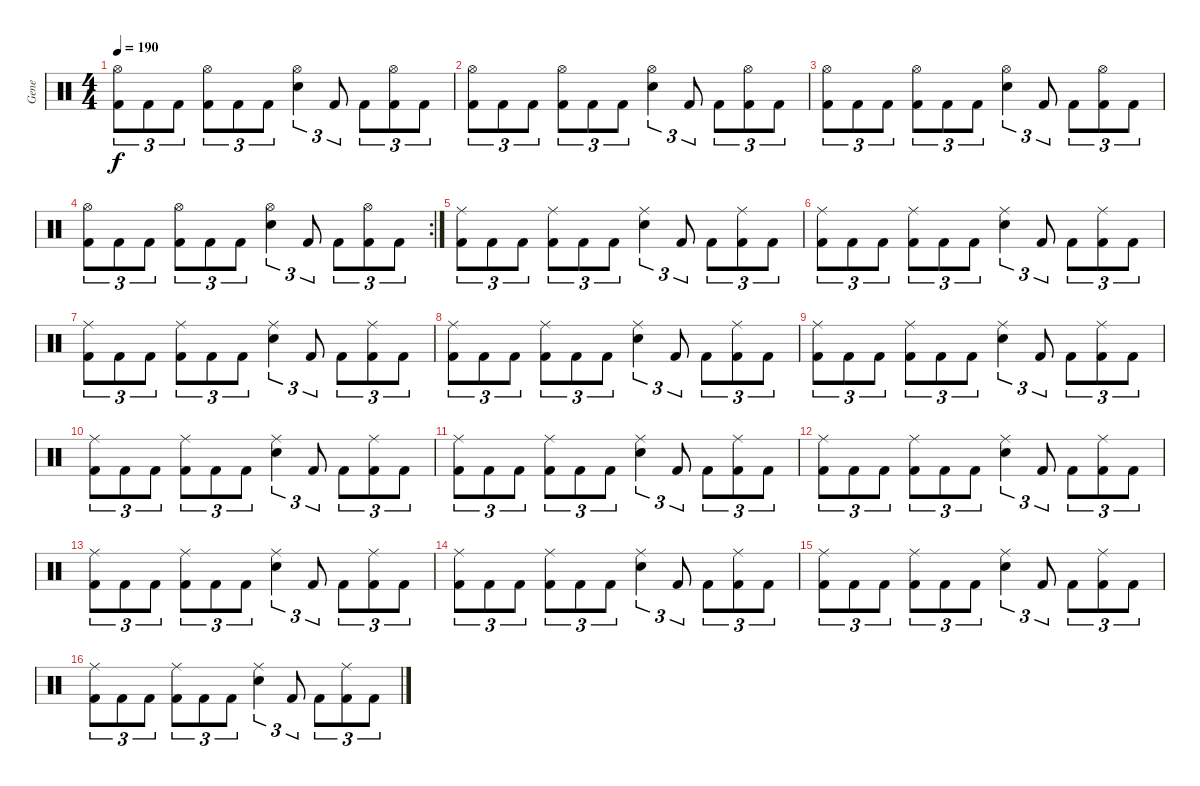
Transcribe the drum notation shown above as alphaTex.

\track ("Gene" "Gene") {instrument percussion}
\staff {score}
\articulation defaults
\ts (4 4)
\tempo 190
\clef neutral
\ks c
("Hi-Hat (open)" "Kick (hit) 2").8{tu (3 2) dy f} "Kick (hit) 2".8{tu (3 2)} "Kick (hit) 2".8{tu (3 2)} ("Hi-Hat (open)" "Kick (hit) 2").8{tu (3 2)} "Kick (hit) 2".8{tu (3 2)} "Kick (hit) 2".8{tu (3 2)} ("Hi-Hat (open)" "Electric Snare (hit)").4{tu (3 2)} "Kick (hit) 2".8{tu (3 2)} "Kick (hit) 2".8{tu (3 2)} ("Hi-Hat (open)" "Kick (hit) 2").8{tu (3 2)} "Kick (hit) 2".8{tu (3 2)} |
("Hi-Hat (open)" "Kick (hit) 2").8{tu (3 2)} "Kick (hit) 2".8{tu (3 2)} "Kick (hit) 2".8{tu (3 2)} ("Hi-Hat (open)" "Kick (hit) 2").8{tu (3 2)} "Kick (hit) 2".8{tu (3 2)} "Kick (hit) 2".8{tu (3 2)} ("Hi-Hat (open)" "Electric Snare (hit)").4{tu (3 2)} "Kick (hit) 2".8{tu (3 2)} "Kick (hit) 2".8{tu (3 2)} ("Hi-Hat (open)" "Kick (hit) 2").8{tu (3 2)} "Kick (hit) 2".8{tu (3 2)} |
("Hi-Hat (open)" "Kick (hit) 2").8{tu (3 2)} "Kick (hit) 2".8{tu (3 2)} "Kick (hit) 2".8{tu (3 2)} ("Hi-Hat (open)" "Kick (hit) 2").8{tu (3 2)} "Kick (hit) 2".8{tu (3 2)} "Kick (hit) 2".8{tu (3 2)} ("Hi-Hat (open)" "Electric Snare (hit)").4{tu (3 2)} "Kick (hit) 2".8{tu (3 2)} "Kick (hit) 2".8{tu (3 2)} ("Hi-Hat (open)" "Kick (hit) 2").8{tu (3 2)} "Kick (hit) 2".8{tu (3 2)} |
\rc 2
("Hi-Hat (open)" "Kick (hit) 2").8{tu (3 2)} "Kick (hit) 2".8{tu (3 2)} "Kick (hit) 2".8{tu (3 2)} ("Hi-Hat (open)" "Kick (hit) 2").8{tu (3 2)} "Kick (hit) 2".8{tu (3 2)} "Kick (hit) 2".8{tu (3 2)} ("Hi-Hat (open)" "Electric Snare (hit)").4{tu (3 2)} "Kick (hit) 2".8{tu (3 2)} "Kick (hit) 2".8{tu (3 2)} ("Hi-Hat (open)" "Kick (hit) 2").8{tu (3 2)} "Kick (hit) 2".8{tu (3 2)} |
("Ride (middle)" "Kick (hit) 2").8{tu (3 2)} "Kick (hit) 2".8{tu (3 2)} "Kick (hit) 2".8{tu (3 2)} ("Ride (middle)" "Kick (hit) 2").8{tu (3 2)} "Kick (hit) 2".8{tu (3 2)} "Kick (hit) 2".8{tu (3 2)} ("Ride (middle)" "Electric Snare (hit)").4{tu (3 2)} "Kick (hit) 2".8{tu (3 2)} "Kick (hit) 2".8{tu (3 2)} ("Ride (middle)" "Kick (hit) 2").8{tu (3 2)} "Kick (hit) 2".8{tu (3 2)} |
("Ride (middle)" "Kick (hit) 2").8{tu (3 2)} "Kick (hit) 2".8{tu (3 2)} "Kick (hit) 2".8{tu (3 2)} ("Ride (middle)" "Kick (hit) 2").8{tu (3 2)} "Kick (hit) 2".8{tu (3 2)} "Kick (hit) 2".8{tu (3 2)} ("Ride (middle)" "Electric Snare (hit)").4{tu (3 2)} "Kick (hit) 2".8{tu (3 2)} "Kick (hit) 2".8{tu (3 2)} ("Ride (middle)" "Kick (hit) 2").8{tu (3 2)} "Kick (hit) 2".8{tu (3 2)} |
("Ride (middle)" "Kick (hit) 2").8{tu (3 2)} "Kick (hit) 2".8{tu (3 2)} "Kick (hit) 2".8{tu (3 2)} ("Ride (middle)" "Kick (hit) 2").8{tu (3 2)} "Kick (hit) 2".8{tu (3 2)} "Kick (hit) 2".8{tu (3 2)} ("Ride (middle)" "Electric Snare (hit)").4{tu (3 2)} "Kick (hit) 2".8{tu (3 2)} "Kick (hit) 2".8{tu (3 2)} ("Ride (middle)" "Kick (hit) 2").8{tu (3 2)} "Kick (hit) 2".8{tu (3 2)} |
("Ride (middle)" "Kick (hit) 2").8{tu (3 2)} "Kick (hit) 2".8{tu (3 2)} "Kick (hit) 2".8{tu (3 2)} ("Ride (middle)" "Kick (hit) 2").8{tu (3 2)} "Kick (hit) 2".8{tu (3 2)} "Kick (hit) 2".8{tu (3 2)} ("Ride (middle)" "Electric Snare (hit)").4{tu (3 2)} "Kick (hit) 2".8{tu (3 2)} "Kick (hit) 2".8{tu (3 2)} ("Ride (middle)" "Kick (hit) 2").8{tu (3 2)} "Kick (hit) 2".8{tu (3 2)} |
("Ride (middle)" "Kick (hit) 2").8{tu (3 2)} "Kick (hit) 2".8{tu (3 2)} "Kick (hit) 2".8{tu (3 2)} ("Ride (middle)" "Kick (hit) 2").8{tu (3 2)} "Kick (hit) 2".8{tu (3 2)} "Kick (hit) 2".8{tu (3 2)} ("Ride (middle)" "Electric Snare (hit)").4{tu (3 2)} "Kick (hit) 2".8{tu (3 2)} "Kick (hit) 2".8{tu (3 2)} ("Ride (middle)" "Kick (hit) 2").8{tu (3 2)} "Kick (hit) 2".8{tu (3 2)} |
("Ride (middle)" "Kick (hit) 2").8{tu (3 2)} "Kick (hit) 2".8{tu (3 2)} "Kick (hit) 2".8{tu (3 2)} ("Ride (middle)" "Kick (hit) 2").8{tu (3 2)} "Kick (hit) 2".8{tu (3 2)} "Kick (hit) 2".8{tu (3 2)} ("Ride (middle)" "Electric Snare (hit)").4{tu (3 2)} "Kick (hit) 2".8{tu (3 2)} "Kick (hit) 2".8{tu (3 2)} ("Ride (middle)" "Kick (hit) 2").8{tu (3 2)} "Kick (hit) 2".8{tu (3 2)} |
("Ride (middle)" "Kick (hit) 2").8{tu (3 2)} "Kick (hit) 2".8{tu (3 2)} "Kick (hit) 2".8{tu (3 2)} ("Ride (middle)" "Kick (hit) 2").8{tu (3 2)} "Kick (hit) 2".8{tu (3 2)} "Kick (hit) 2".8{tu (3 2)} ("Ride (middle)" "Electric Snare (hit)").4{tu (3 2)} "Kick (hit) 2".8{tu (3 2)} "Kick (hit) 2".8{tu (3 2)} ("Ride (middle)" "Kick (hit) 2").8{tu (3 2)} "Kick (hit) 2".8{tu (3 2)} |
("Ride (middle)" "Kick (hit) 2").8{tu (3 2)} "Kick (hit) 2".8{tu (3 2)} "Kick (hit) 2".8{tu (3 2)} ("Ride (middle)" "Kick (hit) 2").8{tu (3 2)} "Kick (hit) 2".8{tu (3 2)} "Kick (hit) 2".8{tu (3 2)} ("Ride (middle)" "Electric Snare (hit)").4{tu (3 2)} "Kick (hit) 2".8{tu (3 2)} "Kick (hit) 2".8{tu (3 2)} ("Ride (middle)" "Kick (hit) 2").8{tu (3 2)} "Kick (hit) 2".8{tu (3 2)} |
("Ride (middle)" "Kick (hit) 2").8{tu (3 2)} "Kick (hit) 2".8{tu (3 2)} "Kick (hit) 2".8{tu (3 2)} ("Ride (middle)" "Kick (hit) 2").8{tu (3 2)} "Kick (hit) 2".8{tu (3 2)} "Kick (hit) 2".8{tu (3 2)} ("Ride (middle)" "Electric Snare (hit)").4{tu (3 2)} "Kick (hit) 2".8{tu (3 2)} "Kick (hit) 2".8{tu (3 2)} ("Ride (middle)" "Kick (hit) 2").8{tu (3 2)} "Kick (hit) 2".8{tu (3 2)} |
("Ride (middle)" "Kick (hit) 2").8{tu (3 2)} "Kick (hit) 2".8{tu (3 2)} "Kick (hit) 2".8{tu (3 2)} ("Ride (middle)" "Kick (hit) 2").8{tu (3 2)} "Kick (hit) 2".8{tu (3 2)} "Kick (hit) 2".8{tu (3 2)} ("Ride (middle)" "Electric Snare (hit)").4{tu (3 2)} "Kick (hit) 2".8{tu (3 2)} "Kick (hit) 2".8{tu (3 2)} ("Ride (middle)" "Kick (hit) 2").8{tu (3 2)} "Kick (hit) 2".8{tu (3 2)} |
("Ride (middle)" "Kick (hit) 2").8{tu (3 2)} "Kick (hit) 2".8{tu (3 2)} "Kick (hit) 2".8{tu (3 2)} ("Ride (middle)" "Kick (hit) 2").8{tu (3 2)} "Kick (hit) 2".8{tu (3 2)} "Kick (hit) 2".8{tu (3 2)} ("Ride (middle)" "Electric Snare (hit)").4{tu (3 2)} "Kick (hit) 2".8{tu (3 2)} "Kick (hit) 2".8{tu (3 2)} ("Ride (middle)" "Kick (hit) 2").8{tu (3 2)} "Kick (hit) 2".8{tu (3 2)} |
("Ride (middle)" "Kick (hit) 2").8{tu (3 2)} "Kick (hit) 2".8{tu (3 2)} "Kick (hit) 2".8{tu (3 2)} ("Ride (middle)" "Kick (hit) 2").8{tu (3 2)} "Kick (hit) 2".8{tu (3 2)} "Kick (hit) 2".8{tu (3 2)} ("Ride (middle)" "Electric Snare (hit)").4{tu (3 2)} "Kick (hit) 2".8{tu (3 2)} "Kick (hit) 2".8{tu (3 2)} ("Ride (middle)" "Kick (hit) 2").8{tu (3 2)} "Kick (hit) 2".8{tu (3 2)}
